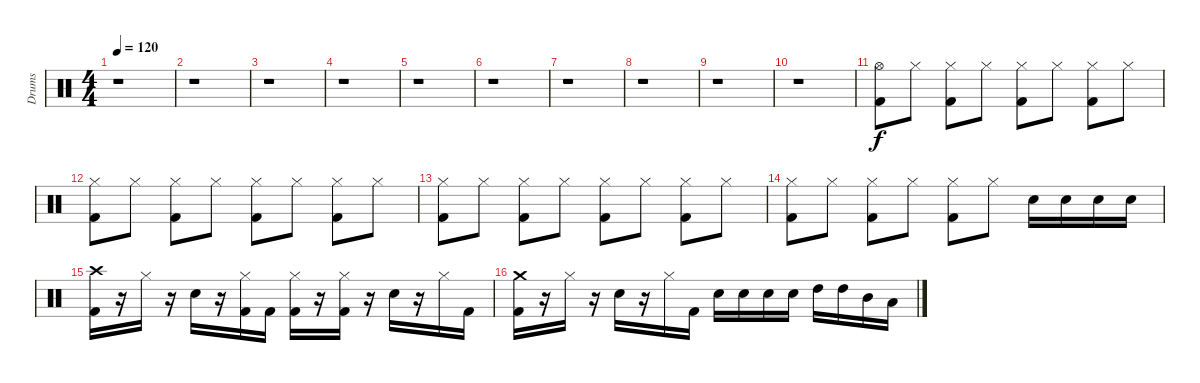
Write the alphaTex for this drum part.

\track ("Drums" "Drums") {instrument percussion}
\staff {score}
\articulation defaults
\ts (4 4)
\tempo 120
\clef neutral
\ks c
r.1{dy f} |
r.1 |
r.1 |
r.1 |
r.1 |
r.1 |
r.1 |
r.1 |
r.1 |
r.1 |
("Hi-Hat (open)" "Kick (hit) 2").8 "Hi-Hat (closed)".8 ("Hi-Hat (closed)" "Kick (hit) 2").8 "Hi-Hat (closed)".8 ("Hi-Hat (closed)" "Kick (hit) 2").8 "Hi-Hat (closed)".8 ("Hi-Hat (closed)" "Kick (hit) 2").8 "Hi-Hat (closed)".8 |
("Hi-Hat (closed)" "Kick (hit) 2").8 "Hi-Hat (closed)".8 ("Hi-Hat (closed)" "Kick (hit) 2").8 "Hi-Hat (closed)".8 ("Hi-Hat (closed)" "Kick (hit) 2").8 "Hi-Hat (closed)".8 ("Hi-Hat (closed)" "Kick (hit) 2").8 "Hi-Hat (closed)".8 |
("Hi-Hat (closed)" "Kick (hit) 2").8 "Hi-Hat (closed)".8 ("Hi-Hat (closed)" "Kick (hit) 2").8 "Hi-Hat (closed)".8 ("Hi-Hat (closed)" "Kick (hit) 2").8 "Hi-Hat (closed)".8 ("Hi-Hat (closed)" "Kick (hit) 2").8 "Hi-Hat (closed)".8 |
("Hi-Hat (closed)" "Kick (hit) 2").8 "Hi-Hat (closed)".8 ("Hi-Hat (closed)" "Kick (hit) 2").8 "Hi-Hat (closed)".8 ("Hi-Hat (closed)" "Kick (hit) 2").8 "Hi-Hat (closed)".8 "Snare (hit) 2".16 "Snare (hit) 2".16 "Snare (hit) 2".16 "Snare (hit) 2".16 |
("Crash high (hit)" "Kick (hit) 2").16 r.16 "Hi-Hat (closed)".16 r.16 "Snare (hit) 2".16 r.16 ("Hi-Hat (closed)" "Kick (hit) 2").16 "Kick (hit) 2".16 ("Hi-Hat (closed)" "Kick (hit) 2").16 r.16 ("Hi-Hat (closed)" "Kick (hit) 2").16 r.16 "Snare (hit) 2".16 r.16 "Hi-Hat (closed)".16 "Kick (hit) 2".16 |
("Crash medium (hit)" "Kick (hit) 2").16 r.16 "Hi-Hat (closed)".16 r.16 "Snare (hit) 2".16 r.16 "Hi-Hat (closed)".16 "Kick (hit) 2".16 "Snare (hit) 2".16 "Snare (hit) 2".16 "Snare (hit) 2".16 "Snare (hit) 2".16 "High Tom (hit)".16 "High Tom (hit)".16 "Mid Tom (hit)".16 "Low Tom (hit)".16
